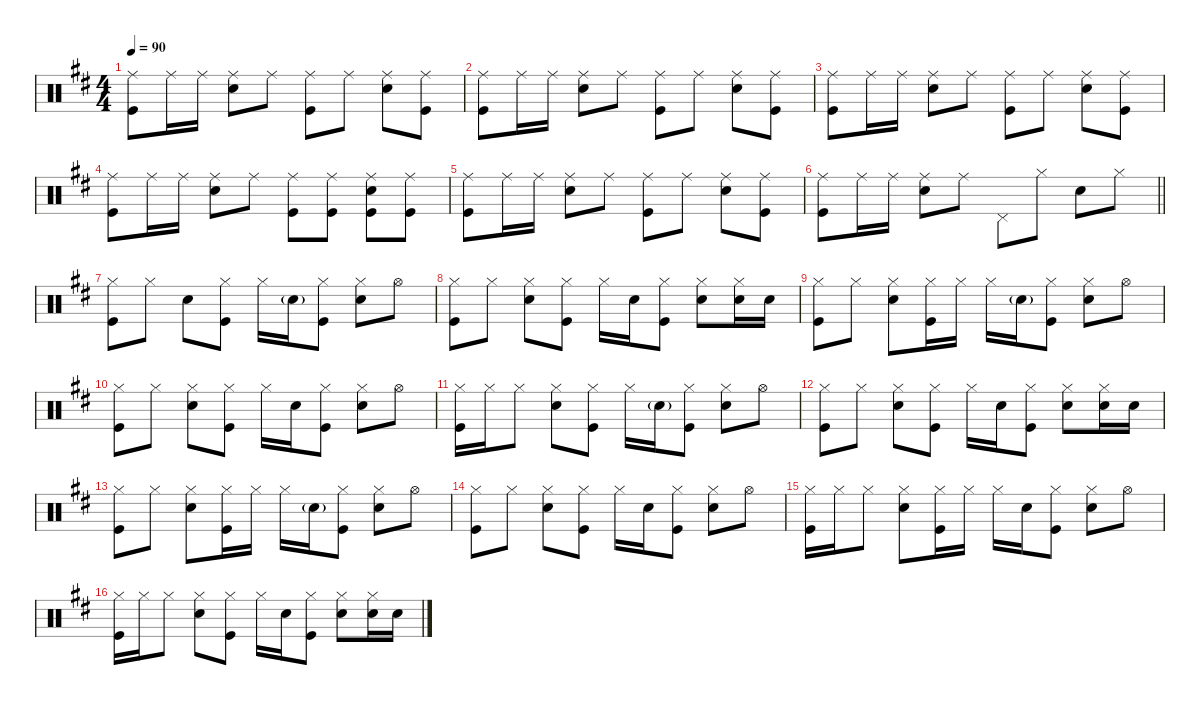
\defaultSystemsLayout 4
\hideDynamics
\bracketExtendMode nobrackets
\singleTrackTrackNamePolicy hidden
\multiTrackTrackNamePolicy hidden
\otherSystemsTrackNameOrientation horizontal
\track ("Drums" "drm.") {instrument percussion}
\staff {score}
\articulation defaults
\ts (4 4)
\tempo 90
\clef neutral
\ks bminor
("Kick (hit)"{acc forcenatural} "Ride (middle)"{acc forcenatural}).8{dy f beam Down} "Ride (middle)"{acc forcenatural}.16{dy pp beam Down} "Ride (middle)"{acc forcenatural}.16{beam Down} ("Snare (hit) 2"{acc forcenatural} "Ride (middle)"{acc forcenatural}).8{dy f beam Down} "Ride (middle)"{acc forcenatural}.8{dy p beam Down} ("Kick (hit)"{acc forcenatural} "Ride (middle)"{acc forcenatural}).8{dy f beam Down} "Ride (middle)"{acc forcenatural}.8{dy p beam Down} ("Snare (hit) 2"{acc forcenatural} "Ride (middle)"{acc forcenatural}).8{dy f beam Down} ("Kick (hit)"{acc forcenatural} "Ride (middle)"{acc forcenatural}).8{dy mf beam Down} |
("Kick (hit)"{acc forcenatural} "Ride (middle)"{acc forcenatural}).8{dy f beam Down} "Ride (middle)"{acc forcenatural}.16{dy pp beam Down} "Ride (middle)"{acc forcenatural}.16{beam Down} ("Snare (hit) 2"{acc forcenatural} "Ride (middle)"{acc forcenatural}).8{dy f beam Down} "Ride (middle)"{acc forcenatural}.8{dy p beam Down} ("Kick (hit)"{acc forcenatural} "Ride (middle)"{acc forcenatural}).8{dy f beam Down} "Ride (middle)"{acc forcenatural}.8{dy p beam Down} ("Snare (hit) 2"{acc forcenatural} "Ride (middle)"{acc forcenatural}).8{dy f beam Down} ("Kick (hit)"{acc forcenatural} "Ride (middle)"{acc forcenatural}).8{dy mf beam Down} |
("Kick (hit)"{acc forcenatural} "Ride (middle)"{acc forcenatural}).8{dy f beam Down} "Ride (middle)"{acc forcenatural}.16{dy pp beam Down} "Ride (middle)"{acc forcenatural}.16{beam Down} ("Snare (hit) 2"{acc forcenatural} "Ride (middle)"{acc forcenatural}).8{dy f beam Down} "Ride (middle)"{acc forcenatural}.8{dy p beam Down} ("Kick (hit)"{acc forcenatural} "Ride (middle)"{acc forcenatural}).8{dy f beam Down} "Ride (middle)"{acc forcenatural}.8{dy p beam Down} ("Snare (hit) 2"{acc forcenatural} "Ride (middle)"{acc forcenatural}).8{dy f beam Down} ("Kick (hit)"{acc forcenatural} "Ride (middle)"{acc forcenatural}).8{dy mf beam Down} |
("Kick (hit)"{acc forcenatural} "Ride (middle)"{acc forcenatural}).8{dy f beam Down} "Ride (middle)"{acc forcenatural}.16{dy pp beam Down} "Ride (middle)"{acc forcenatural}.16{beam Down} ("Snare (hit) 2"{acc forcenatural} "Ride (middle)"{acc forcenatural}).8{dy f beam Down} "Ride (middle)"{acc forcenatural}.8{dy p beam Down} ("Kick (hit)"{acc forcenatural} "Ride (middle)"{acc forcenatural}).8{dy f beam Down} ("Kick (hit)"{acc forcenatural} "Ride (middle)"{acc forcenatural}).8{beam Down} ("Kick (hit)"{acc forcenatural} "Snare (hit) 2"{acc forcenatural} "Ride (middle)"{acc forcenatural}).8{beam Down} ("Kick (hit)"{acc forcenatural} "Ride (middle)"{acc forcenatural}).8{beam Down} |
("Kick (hit)"{acc forcenatural} "Ride (middle)"{acc forcenatural}).8{beam Down} "Ride (middle)"{acc forcenatural}.16{dy pp beam Down} "Ride (middle)"{acc forcenatural}.16{beam Down} ("Snare (hit) 2"{acc forcenatural} "Ride (middle)"{acc forcenatural}).8{dy f beam Down} "Ride (middle)"{acc forcenatural}.8{dy p beam Down} ("Kick (hit)"{acc forcenatural} "Ride (middle)"{acc forcenatural}).8{dy f beam Down} "Ride (middle)"{acc forcenatural}.8{dy p beam Down} ("Snare (hit) 2"{acc forcenatural} "Ride (middle)"{acc forcenatural}).8{dy f beam Down} ("Kick (hit)"{acc forcenatural} "Ride (middle)"{acc forcenatural}).8{dy mf beam Down} |
\barLineRight lightlight
("Kick (hit)"{acc forcenatural} "Ride (middle)"{acc forcenatural}).8{dy f beam Down} "Ride (middle)"{acc forcenatural}.16{dy pp beam Down} "Ride (middle)"{acc forcenatural}.16{beam Down} ("Snare (hit) 2"{acc forcenatural} "Ride (middle)"{acc forcenatural}).8{dy f beam Down} "Ride (middle)"{acc forcenatural}.8{dy p beam Down} "Pedal Hi-Hat (hit)"{acc forcenatural}.8{dy mp beam Down} "Hi-Hat (closed)"{acc forcenatural}.8{dy pp beam Down} "Snare (hit) 2"{acc forcenatural}.8{dy f beam Down} "Hi-Hat (closed)"{acc forcenatural}.8{dy pp beam Down} |
("Kick (hit)"{acc forcenatural} "Hi-Hat (closed)"{acc forcenatural}).8{dy mf beam Down} "Hi-Hat (closed)"{acc forcenatural}.8{dy ppp beam Down} "Snare (hit) 2"{acc forcenatural}.8{dy mf beam Down} ("Kick (hit)"{acc forcenatural} "Hi-Hat (closed)"{acc forcenatural}).8{beam Down} "Hi-Hat (closed)"{acc forcenatural}.16{dy ppp beam Down} "Snare (hit) 2"{g acc forcenatural}.16{dy mp beam Down} ("Kick (hit)"{acc forcenatural} "Hi-Hat (closed)"{acc forcenatural}).8{dy p beam Down} ("Snare (hit) 2"{acc forcenatural} "Hi-Hat (closed)"{acc forcenatural}).8{dy mf beam Down} "Hi-Hat (open)"{acc forcenatural}.8{dy pp beam Down} |
("Kick (hit)"{acc forcenatural} "Hi-Hat (closed)"{acc forcenatural}).8{dy mf beam Down} "Hi-Hat (closed)"{acc forcenatural}.8{dy ppp beam Down} ("Snare (hit) 2"{acc forcenatural} "Hi-Hat (closed)"{acc forcenatural}).8{dy mf beam Down} ("Kick (hit)"{acc forcenatural} "Hi-Hat (closed)"{acc forcenatural}).8{dy mp beam Down} "Hi-Hat (closed)"{acc forcenatural}.16{dy ppp beam Down} "Snare (hit) 2"{acc forcenatural}.16{dy mf beam Down} ("Kick (hit)"{acc forcenatural} "Hi-Hat (closed)"{acc forcenatural}).8{beam Down} ("Snare (hit) 2"{acc forcenatural} "Hi-Hat (closed)"{acc forcenatural}).8{beam Down} ("Snare (hit) 2"{acc forcenatural} "Hi-Hat (closed)"{acc forcenatural}).16{beam Down} "Snare (hit) 2"{acc forcenatural}.16{beam Down} |
("Kick (hit)"{acc forcenatural} "Hi-Hat (closed)"{acc forcenatural}).8{beam Down} "Hi-Hat (closed)"{acc forcenatural}.8{dy ppp beam Down} ("Snare (hit) 2"{acc forcenatural} "Hi-Hat (closed)"{acc forcenatural}).8{dy mf beam Down} ("Kick (hit)"{acc forcenatural} "Hi-Hat (closed)"{acc forcenatural}).16{beam Down} "Hi-Hat (closed)"{acc forcenatural}.16{dy ppp beam Down} "Hi-Hat (closed)"{acc forcenatural}.16{beam Down} "Snare (hit) 2"{g acc forcenatural}.16{dy mp beam Down} ("Kick (hit)"{acc forcenatural} "Hi-Hat (closed)"{acc forcenatural}).8{dy p beam Down} ("Snare (hit) 2"{acc forcenatural} "Hi-Hat (closed)"{acc forcenatural}).8{dy mf beam Down} "Hi-Hat (open)"{acc forcenatural}.8{dy pp beam Down} |
("Kick (hit)"{acc forcenatural} "Hi-Hat (closed)"{acc forcenatural}).8{dy mf beam Down} "Hi-Hat (closed)"{acc forcenatural}.8{dy ppp beam Down} ("Snare (hit) 2"{acc forcenatural} "Hi-Hat (closed)"{acc forcenatural}).8{dy mf beam Down} ("Kick (hit)"{acc forcenatural} "Hi-Hat (closed)"{acc forcenatural}).8{dy p beam Down} "Hi-Hat (closed)"{acc forcenatural}.16{dy ppp beam Down} "Snare (hit) 2"{acc forcenatural}.16{dy mf beam Down} ("Kick (hit)"{acc forcenatural} "Hi-Hat (closed)"{acc forcenatural}).8{beam Down} ("Snare (hit) 2"{acc forcenatural} "Hi-Hat (closed)"{acc forcenatural}).8{beam Down} "Hi-Hat (open)"{acc forcenatural}.8{dy pp beam Down} |
("Kick (hit)"{acc forcenatural} "Hi-Hat (closed)"{acc forcenatural}).16{dy mf beam Down} "Hi-Hat (closed)"{acc forcenatural}.16{dy ppp beam Down} "Hi-Hat (closed)"{acc forcenatural}.8{beam Down} ("Snare (hit) 2"{acc forcenatural} "Hi-Hat (closed)"{acc forcenatural}).8{dy mf beam Down} ("Kick (hit)"{acc forcenatural} "Hi-Hat (closed)"{acc forcenatural}).8{beam Down} "Hi-Hat (closed)"{acc forcenatural}.16{dy ppp beam Down} "Snare (hit) 2"{g acc forcenatural}.16{dy mp beam Down} ("Kick (hit)"{acc forcenatural} "Hi-Hat (closed)"{acc forcenatural}).8{dy p beam Down} ("Snare (hit) 2"{acc forcenatural} "Hi-Hat (closed)"{acc forcenatural}).8{dy mf beam Down} "Hi-Hat (open)"{acc forcenatural}.8{dy pp beam Down} |
("Kick (hit)"{acc forcenatural} "Hi-Hat (closed)"{acc forcenatural}).8{dy mf beam Down} "Hi-Hat (closed)"{acc forcenatural}.8{dy ppp beam Down} ("Snare (hit) 2"{acc forcenatural} "Hi-Hat (closed)"{acc forcenatural}).8{dy mf beam Down} ("Kick (hit)"{acc forcenatural} "Hi-Hat (closed)"{acc forcenatural}).8{dy mp beam Down} "Hi-Hat (closed)"{acc forcenatural}.16{dy ppp beam Down} "Snare (hit) 2"{acc forcenatural}.16{dy mf beam Down} ("Kick (hit)"{acc forcenatural} "Hi-Hat (closed)"{acc forcenatural}).8{beam Down} ("Snare (hit) 2"{acc forcenatural} "Hi-Hat (closed)"{acc forcenatural}).8{beam Down} ("Snare (hit) 2"{acc forcenatural} "Hi-Hat (closed)"{acc forcenatural}).16{beam Down} "Snare (hit) 2"{acc forcenatural}.16{beam Down} |
("Kick (hit)"{acc forcenatural} "Hi-Hat (closed)"{acc forcenatural}).8{beam Down} "Hi-Hat (closed)"{acc forcenatural}.8{dy ppp beam Down} ("Snare (hit) 2"{acc forcenatural} "Hi-Hat (closed)"{acc forcenatural}).8{dy mf beam Down} ("Kick (hit)"{acc forcenatural} "Hi-Hat (closed)"{acc forcenatural}).16{beam Down} "Hi-Hat (closed)"{acc forcenatural}.16{dy ppp beam Down} "Hi-Hat (closed)"{acc forcenatural}.16{beam Down} "Snare (hit) 2"{g acc forcenatural}.16{dy mp beam Down} ("Kick (hit)"{acc forcenatural} "Hi-Hat (closed)"{acc forcenatural}).8{dy p beam Down} ("Snare (hit) 2"{acc forcenatural} "Hi-Hat (closed)"{acc forcenatural}).8{dy mf beam Down} "Hi-Hat (open)"{acc forcenatural}.8{dy pp beam Down} |
("Kick (hit)"{acc forcenatural} "Hi-Hat (closed)"{acc forcenatural}).8{dy mf beam Down} "Hi-Hat (closed)"{acc forcenatural}.8{dy ppp beam Down} ("Snare (hit) 2"{acc forcenatural} "Hi-Hat (closed)"{acc forcenatural}).8{dy mf beam Down} ("Kick (hit)"{acc forcenatural} "Hi-Hat (closed)"{acc forcenatural}).8{dy p beam Down} "Hi-Hat (closed)"{acc forcenatural}.16{dy ppp beam Down} "Snare (hit) 2"{acc forcenatural}.16{dy mf beam Down} ("Kick (hit)"{acc forcenatural} "Hi-Hat (closed)"{acc forcenatural}).8{beam Down} ("Snare (hit) 2"{acc forcenatural} "Hi-Hat (closed)"{acc forcenatural}).8{beam Down} "Hi-Hat (open)"{acc forcenatural}.8{dy pp beam Down} |
("Kick (hit)"{acc forcenatural} "Hi-Hat (closed)"{acc forcenatural}).16{dy mf beam Down} "Hi-Hat (closed)"{acc forcenatural}.16{dy ppp beam Down} "Hi-Hat (closed)"{acc forcenatural}.8{beam Down} ("Snare (hit) 2"{acc forcenatural} "Hi-Hat (closed)"{acc forcenatural}).8{dy mf beam Down} ("Kick (hit)"{acc forcenatural} "Hi-Hat (closed)"{acc forcenatural}).16{beam Down} "Hi-Hat (closed)"{acc forcenatural}.16{dy ppp beam Down} "Hi-Hat (closed)"{acc forcenatural}.16{beam Down} "Snare (hit) 2"{acc forcenatural}.16{dy mp beam Down} ("Kick (hit)"{acc forcenatural} "Hi-Hat (closed)"{acc forcenatural}).8{beam Down} ("Snare (hit) 2"{acc forcenatural} "Hi-Hat (closed)"{acc forcenatural}).8{dy mf beam Down} "Hi-Hat (open)"{acc forcenatural}.8{dy pp beam Down} |
("Kick (hit)"{acc forcenatural} "Hi-Hat (closed)"{acc forcenatural}).16{dy mp beam Down} "Hi-Hat (closed)"{acc forcenatural}.16{dy ppp beam Down} "Hi-Hat (closed)"{acc forcenatural}.8{beam Down} ("Snare (hit) 2"{acc forcenatural} "Hi-Hat (closed)"{acc forcenatural}).8{dy mp beam Down} ("Kick (hit)"{acc forcenatural} "Hi-Hat (closed)"{acc forcenatural}).8{dy p beam Down} "Hi-Hat (closed)"{acc forcenatural}.16{dy ppp beam Down} "Snare (hit) 2"{acc forcenatural}.16{dy p beam Down} ("Kick (hit)"{acc forcenatural} "Hi-Hat (closed)"{acc forcenatural}).8{beam Down} ("Snare (hit) 2"{acc forcenatural} "Hi-Hat (closed)"{acc forcenatural}).8{dy mp beam Down} ("Snare (hit) 2"{acc forcenatural} "Hi-Hat (closed)"{acc forcenatural}).16{beam Down} "Snare (hit) 2"{acc forcenatural}.16{beam Down}
